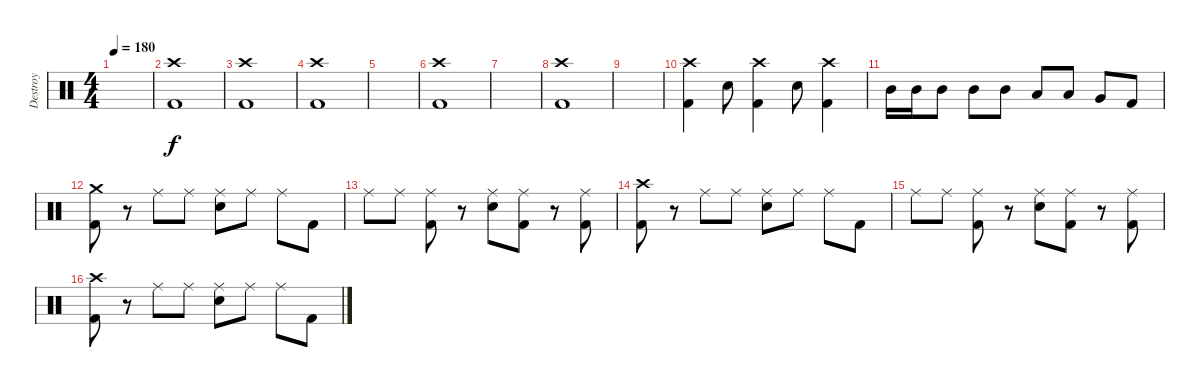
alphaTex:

\track ("Destroy" "Destroy") {instrument percussion}
\staff {score}
\articulation defaults
\ts (4 4)
\tempo 180
\clef neutral
\ks c
|
("Crash high (hit)" "Kick (hit) 2").1 |
("Crash high (hit)" "Kick (hit) 2").1 |
("Crash high (hit)" "Kick (hit) 2").1 |
|
("Crash high (hit)" "Kick (hit) 2").1 |
|
("Crash high (hit)" "Kick (hit) 2").1 |
|
("Crash high (hit)" "Kick (hit) 2").4 "Electric Snare (hit)".8 ("Crash high (hit)" "Kick (hit) 2").4 "Electric Snare (hit)".8 ("Crash high (hit)" "Kick (hit) 2").4 |
"Mid Tom (hit)".16 "Mid Tom (hit)".16 "Mid Tom (hit)".8 "Mid Tom (hit)".8 "Mid Tom (hit)".8 "Low Tom (hit)".8 "Low Tom (hit)".8 "Very Low Tom (hit)".8 "Kick (hit) 2".8 |
("Crash medium (hit)" "Kick (hit) 2").8 r.8 "Ride (middle)".8 "Ride (middle)".8 ("Ride (middle)" "Electric Snare (hit)").8 "Ride (middle)".8 "Ride (middle)".8 "Kick (hit) 2".8 |
"Ride (middle)".8 "Ride (middle)".8 ("Ride (middle)" "Kick (hit) 2").8 r.8 ("Ride (middle)" "Electric Snare (hit)").8 ("Ride (middle)" "Kick (hit) 2").8 r.8 ("Ride (middle)" "Kick (hit) 2").8 |
("Crash high (hit)" "Kick (hit) 2").8 r.8 "Ride (middle)".8 "Ride (middle)".8 ("Ride (middle)" "Electric Snare (hit)").8 "Ride (middle)".8 "Ride (middle)".8 "Kick (hit) 2".8 |
"Ride (middle)".8 "Ride (middle)".8 ("Ride (middle)" "Kick (hit) 2").8 r.8 ("Ride (middle)" "Electric Snare (hit)").8 ("Ride (middle)" "Kick (hit) 2").8 r.8 ("Ride (middle)" "Kick (hit) 2").8 |
("Crash high (hit)" "Kick (hit) 2").8 r.8 "Ride (middle)".8 "Ride (middle)".8 ("Ride (middle)" "Electric Snare (hit)").8 "Ride (middle)".8 "Ride (middle)".8 "Kick (hit) 2".8
